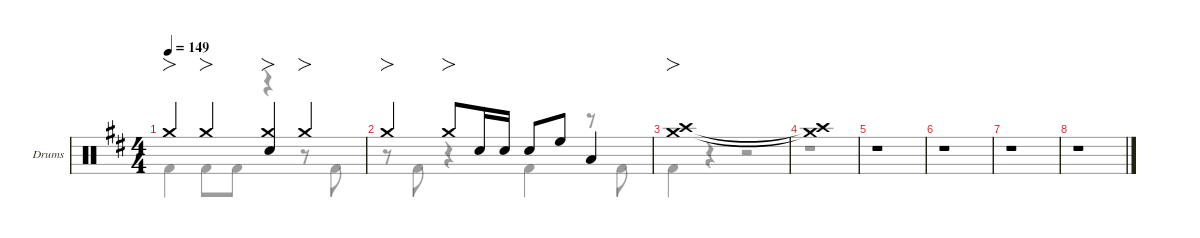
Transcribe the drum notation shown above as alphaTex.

\defaultSystemsLayout 4
\hideDynamics
\bracketExtendMode nobrackets
\firstSystemTrackNameOrientation horizontal
\track ("Drums" "Drums") {defaultSystemsLayout 4 instrument percussion}
\staff {score}
\articulation defaults
\voice
\ts (4 4)
\tempo 149
\clef neutral
\scale
0.244132
\ks d "Crash medium (hit)"{acc forcenatural}.4{fo dy f beam Up} "Crash medium (hit)"{acc forcenatural}.4{fo beam Up}
("Crash medium (hit)"{acc forcenatural} "Snare (hit) 2"{acc forcenatural}).4{fo beam Up} "Crash medium (hit)"{acc forcenatural}.4{fo beam Up} |
\scale
0.244132 "Crash medium (hit)"{acc forcenatural}.4{fo beam Up} "Crash medium (hit)"{acc forcenatural}.8{fo beam Up} "Snare (hit) 2"{acc forcenatural}.16{beam Up} "Snare (hit) 2"{acc forcenatural}.16{dy mf beam Up} "Snare (hit) 2"{acc forcenatural}.8{dy f beam Up} "High Floor Tom (hit)"{acc forcenatural}.8{beam Up} "Low Tom (hit)"{acc forcenatural}.4{beam Up} |
\scale
0.267605 ("Crash high (hit)"{acc forcenatural} "Crash medium (hit)"{acc forcenatural}).1{fo beam Up} |
\scale
0.244132 ("Crash high (hit)"{t acc forcenatural} "Crash medium (hit)"{t acc forcenatural}).1{beam Up} |
\scale
0.244132 r.1{beam Up} |
\scale
0.244132 r.1{beam Up} |
\scale
0.511737 r.1{beam Up} |
\scale
0.488263 r.1{beam Up}
\voice
\clef neutral
\ottava regular
\simile none
\scale
0.244132
\ks d "Kick (hit) 2"{acc forcenatural}.4{dy f beam Down} "Kick (hit) 2"{acc forcenatural}.8{beam Down} "Kick (hit) 2"{acc forcenatural}.8{beam Down}
r.4{beam Down} r.8{beam Down} "Kick (hit) 2"{acc forcenatural}.8{beam Down} |
\scale
0.244132 r.8{beam Down} "Kick (hit) 2"{acc forcenatural}.8{beam Down} r.4{beam Down} "Kick (hit) 2"{acc forcenatural}.4{beam Down} r.8{beam Down} "Kick (hit) 2"{acc forcenatural}.8{beam Down} |
\scale
0.267605 "Kick (hit) 2"{acc forcenatural}.4{beam Down} r.4{beam Down} r.2{beam Down} |
\scale
0.244132 r.1{beam Down} |
\scale
0.244132 r.1{beam Down} |
\scale
0.244132 r.1{beam Down} |
\scale
0.511737 r.1{beam Down} |
\scale
0.488263 r.1{beam Down}
